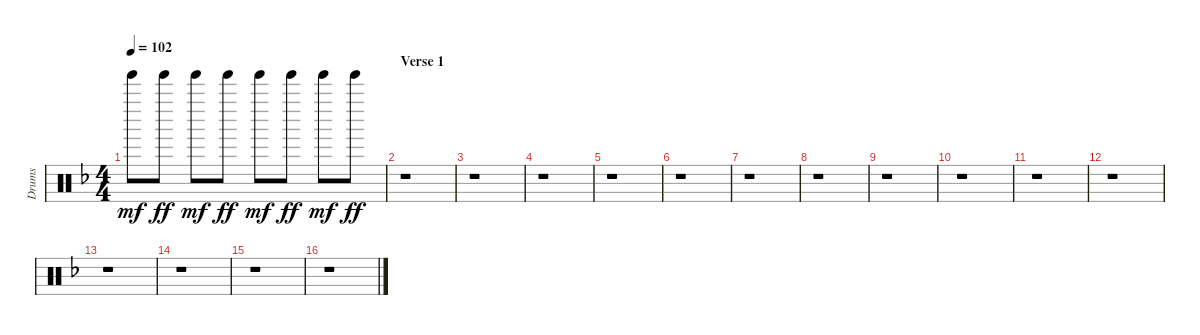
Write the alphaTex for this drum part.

\track ("Drums" "Drums") {instrument percussion}
\staff {score}
\articulation defaults
\ts (4 4)
\tempo 102
\clef neutral
\ks f "Tinkle Bell (hit)".8{dy mf} "Tinkle Bell (hit)".8{dy ff} "Tinkle Bell (hit)".8{dy mf} "Tinkle Bell (hit)".8{dy ff} "Tinkle Bell (hit)".8{dy mf} "Tinkle Bell (hit)".8{dy ff} "Tinkle Bell (hit)".8{dy mf} "Tinkle Bell (hit)".8{dy ff}
|
\section ("" "Verse 1")
r.1 |
r.1 |
r.1 |
r.1 |
r.1 |
r.1 |
r.1 |
r.1 |
r.1 |
r.1 |
r.1 |
r.1 |
r.1 |
r.1 |
r.1
